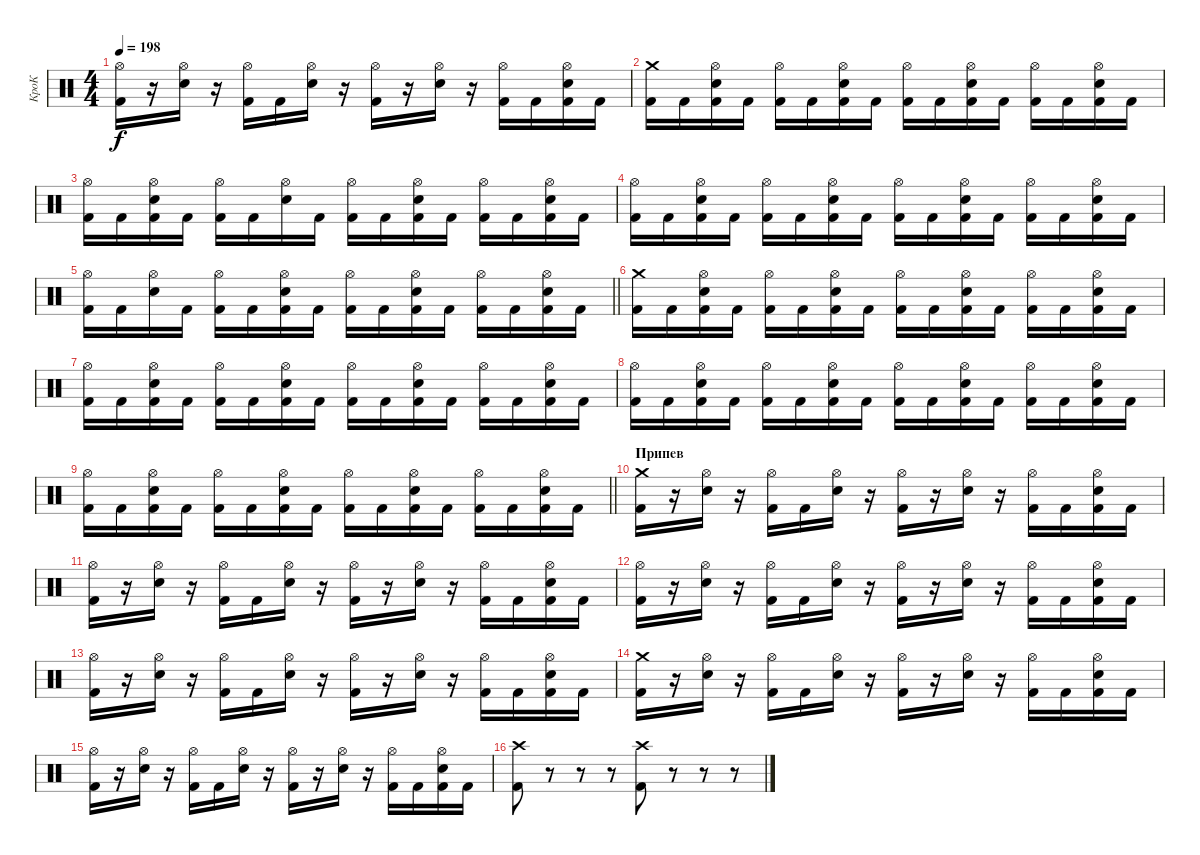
\track ("КроК" "КроК") {instrument percussion}
\staff {score}
\articulation defaults
\ts (4 4)
\tempo 198
\clef neutral
\ks c
("Hi-Hat (open)" "Kick (hit) 2").16{dy f} r.16 ("Hi-Hat (open)" "Electric Snare (hit)").16 r.16 ("Hi-Hat (open)" "Kick (hit) 2").16 "Kick (hit) 2".16 ("Hi-Hat (open)" "Electric Snare (hit)").16 r.16 ("Hi-Hat (open)" "Kick (hit) 2").16 r.16 ("Hi-Hat (open)" "Electric Snare (hit)").16 r.16 ("Hi-Hat (open)" "Kick (hit) 2").16 "Kick (hit) 2".16 ("Hi-Hat (open)" "Electric Snare (hit)" "Kick (hit) 2").16 "Kick (hit) 2".16 |
("Crash medium (hit)" "Kick (hit) 2").16 "Kick (hit) 2".16 ("Hi-Hat (open)" "Electric Snare (hit)" "Kick (hit) 2").16 "Kick (hit) 2".16 ("Hi-Hat (open)" "Kick (hit) 2").16 "Kick (hit) 2".16 ("Hi-Hat (open)" "Electric Snare (hit)" "Kick (hit) 2").16 "Kick (hit) 2".16 ("Hi-Hat (open)" "Kick (hit) 2").16 "Kick (hit) 2".16 ("Hi-Hat (open)" "Electric Snare (hit)" "Kick (hit) 2").16 "Kick (hit) 2".16 ("Hi-Hat (open)" "Kick (hit) 2").16 "Kick (hit) 2".16 ("Hi-Hat (open)" "Electric Snare (hit)" "Kick (hit) 2").16 "Kick (hit) 2".16 |
("Hi-Hat (open)" "Kick (hit) 2").16 "Kick (hit) 2".16 ("Hi-Hat (open)" "Electric Snare (hit)" "Kick (hit) 2").16 "Kick (hit) 2".16 ("Hi-Hat (open)" "Kick (hit) 2").16 "Kick (hit) 2".16 ("Hi-Hat (open)" "Electric Snare (hit)").16 "Kick (hit) 2".16 ("Hi-Hat (open)" "Kick (hit) 2").16 "Kick (hit) 2".16 ("Hi-Hat (open)" "Electric Snare (hit)" "Kick (hit) 2").16 "Kick (hit) 2".16 ("Hi-Hat (open)" "Kick (hit) 2").16 "Kick (hit) 2".16 ("Hi-Hat (open)" "Electric Snare (hit)" "Kick (hit) 2").16 "Kick (hit) 2".16 |
("Hi-Hat (open)" "Kick (hit) 2").16 "Kick (hit) 2".16 ("Hi-Hat (open)" "Electric Snare (hit)" "Kick (hit) 2").16 "Kick (hit) 2".16 ("Hi-Hat (open)" "Kick (hit) 2").16 "Kick (hit) 2".16 ("Hi-Hat (open)" "Electric Snare (hit)" "Kick (hit) 2").16 "Kick (hit) 2".16 ("Hi-Hat (open)" "Kick (hit) 2").16 "Kick (hit) 2".16 ("Hi-Hat (open)" "Electric Snare (hit)" "Kick (hit) 2").16 "Kick (hit) 2".16 ("Hi-Hat (open)" "Kick (hit) 2").16 "Kick (hit) 2".16 ("Hi-Hat (open)" "Electric Snare (hit)" "Kick (hit) 2").16 "Kick (hit) 2".16 |
\barLineRight lightlight
("Hi-Hat (open)" "Kick (hit) 2").16 "Kick (hit) 2".16 ("Hi-Hat (open)" "Electric Snare (hit)").16 "Kick (hit) 2".16 ("Hi-Hat (open)" "Kick (hit) 2").16 "Kick (hit) 2".16 ("Hi-Hat (open)" "Electric Snare (hit)" "Kick (hit) 2").16 "Kick (hit) 2".16 ("Hi-Hat (open)" "Kick (hit) 2").16 "Kick (hit) 2".16 ("Hi-Hat (open)" "Electric Snare (hit)" "Kick (hit) 2").16 "Kick (hit) 2".16 ("Hi-Hat (open)" "Kick (hit) 2").16 "Kick (hit) 2".16 ("Hi-Hat (open)" "Electric Snare (hit)" "Kick (hit) 2").16 "Kick (hit) 2".16 |
("Crash medium (hit)" "Kick (hit) 2").16 "Kick (hit) 2".16 ("Hi-Hat (open)" "Electric Snare (hit)" "Kick (hit) 2").16 "Kick (hit) 2".16 ("Hi-Hat (open)" "Kick (hit) 2").16 "Kick (hit) 2".16 ("Hi-Hat (open)" "Electric Snare (hit)" "Kick (hit) 2").16 "Kick (hit) 2".16 ("Hi-Hat (open)" "Kick (hit) 2").16 "Kick (hit) 2".16 ("Hi-Hat (open)" "Electric Snare (hit)" "Kick (hit) 2").16 "Kick (hit) 2".16 ("Hi-Hat (open)" "Kick (hit) 2").16 "Kick (hit) 2".16 ("Hi-Hat (open)" "Electric Snare (hit)" "Kick (hit) 2").16 "Kick (hit) 2".16 |
("Hi-Hat (open)" "Kick (hit) 2").16 "Kick (hit) 2".16 ("Hi-Hat (open)" "Electric Snare (hit)" "Kick (hit) 2").16 "Kick (hit) 2".16 ("Hi-Hat (open)" "Kick (hit) 2").16 "Kick (hit) 2".16 ("Hi-Hat (open)" "Electric Snare (hit)" "Kick (hit) 2").16 "Kick (hit) 2".16 ("Hi-Hat (open)" "Kick (hit) 2").16 "Kick (hit) 2".16 ("Hi-Hat (open)" "Electric Snare (hit)" "Kick (hit) 2").16 "Kick (hit) 2".16 ("Hi-Hat (open)" "Kick (hit) 2").16 "Kick (hit) 2".16 ("Hi-Hat (open)" "Electric Snare (hit)" "Kick (hit) 2").16 "Kick (hit) 2".16 |
("Hi-Hat (open)" "Kick (hit) 2").16 "Kick (hit) 2".16 ("Hi-Hat (open)" "Electric Snare (hit)" "Kick (hit) 2").16 "Kick (hit) 2".16 ("Hi-Hat (open)" "Kick (hit) 2").16 "Kick (hit) 2".16 ("Hi-Hat (open)" "Electric Snare (hit)" "Kick (hit) 2").16 "Kick (hit) 2".16 ("Hi-Hat (open)" "Kick (hit) 2").16 "Kick (hit) 2".16 ("Hi-Hat (open)" "Electric Snare (hit)" "Kick (hit) 2").16 "Kick (hit) 2".16 ("Hi-Hat (open)" "Kick (hit) 2").16 "Kick (hit) 2".16 ("Hi-Hat (open)" "Electric Snare (hit)" "Kick (hit) 2").16 "Kick (hit) 2".16 |
\barLineRight lightlight
("Hi-Hat (open)" "Kick (hit) 2").16 "Kick (hit) 2".16 ("Hi-Hat (open)" "Electric Snare (hit)" "Kick (hit) 2").16 "Kick (hit) 2".16 ("Hi-Hat (open)" "Kick (hit) 2").16 "Kick (hit) 2".16 ("Hi-Hat (open)" "Electric Snare (hit)" "Kick (hit) 2").16 "Kick (hit) 2".16 ("Hi-Hat (open)" "Kick (hit) 2").16 "Kick (hit) 2".16 ("Hi-Hat (open)" "Electric Snare (hit)" "Kick (hit) 2").16 "Kick (hit) 2".16 ("Hi-Hat (open)" "Kick (hit) 2").16 "Kick (hit) 2".16 ("Hi-Hat (open)" "Electric Snare (hit)" "Kick (hit) 2").16 "Kick (hit) 2".16 |
\section ("" "Припев")
("Crash medium (hit)" "Kick (hit) 2").16 r.16 ("Hi-Hat (open)" "Electric Snare (hit)").16 r.16 ("Hi-Hat (open)" "Kick (hit) 2").16 "Kick (hit) 2".16 ("Hi-Hat (open)" "Electric Snare (hit)").16 r.16 ("Hi-Hat (open)" "Kick (hit) 2").16 r.16 ("Hi-Hat (open)" "Electric Snare (hit)").16 r.16 ("Hi-Hat (open)" "Kick (hit) 2").16 "Kick (hit) 2".16 ("Hi-Hat (open)" "Electric Snare (hit)" "Kick (hit) 2").16 "Kick (hit) 2".16 |
("Hi-Hat (open)" "Kick (hit) 2").16 r.16 ("Hi-Hat (open)" "Electric Snare (hit)").16 r.16 ("Hi-Hat (open)" "Kick (hit) 2").16 "Kick (hit) 2".16 ("Hi-Hat (open)" "Electric Snare (hit)").16 r.16 ("Hi-Hat (open)" "Kick (hit) 2").16 r.16 ("Hi-Hat (open)" "Electric Snare (hit)").16 r.16 ("Hi-Hat (open)" "Kick (hit) 2").16 "Kick (hit) 2".16 ("Hi-Hat (open)" "Electric Snare (hit)" "Kick (hit) 2").16 "Kick (hit) 2".16 |
("Hi-Hat (open)" "Kick (hit) 2").16 r.16 ("Hi-Hat (open)" "Electric Snare (hit)").16 r.16 ("Hi-Hat (open)" "Kick (hit) 2").16 "Kick (hit) 2".16 ("Hi-Hat (open)" "Electric Snare (hit)").16 r.16 ("Hi-Hat (open)" "Kick (hit) 2").16 r.16 ("Hi-Hat (open)" "Electric Snare (hit)").16 r.16 ("Hi-Hat (open)" "Kick (hit) 2").16 "Kick (hit) 2".16 ("Hi-Hat (open)" "Electric Snare (hit)" "Kick (hit) 2").16 "Kick (hit) 2".16 |
("Hi-Hat (open)" "Kick (hit) 2").16 r.16 ("Hi-Hat (open)" "Electric Snare (hit)").16 r.16 ("Hi-Hat (open)" "Kick (hit) 2").16 "Kick (hit) 2".16 ("Hi-Hat (open)" "Electric Snare (hit)").16 r.16 ("Hi-Hat (open)" "Kick (hit) 2").16 r.16 ("Hi-Hat (open)" "Electric Snare (hit)").16 r.16 ("Hi-Hat (open)" "Kick (hit) 2").16 "Kick (hit) 2".16 ("Hi-Hat (open)" "Electric Snare (hit)" "Kick (hit) 2").16 "Kick (hit) 2".16 |
("Crash medium (hit)" "Kick (hit) 2").16 r.16 ("Hi-Hat (open)" "Electric Snare (hit)").16 r.16 ("Hi-Hat (open)" "Kick (hit) 2").16 "Kick (hit) 2".16 ("Hi-Hat (open)" "Electric Snare (hit)").16 r.16 ("Hi-Hat (open)" "Kick (hit) 2").16 r.16 ("Hi-Hat (open)" "Electric Snare (hit)").16 r.16 ("Hi-Hat (open)" "Kick (hit) 2").16 "Kick (hit) 2".16 ("Hi-Hat (open)" "Electric Snare (hit)" "Kick (hit) 2").16 "Kick (hit) 2".16 |
("Hi-Hat (open)" "Kick (hit) 2").16 r.16 ("Hi-Hat (open)" "Electric Snare (hit)").16 r.16 ("Hi-Hat (open)" "Kick (hit) 2").16 "Kick (hit) 2".16 ("Hi-Hat (open)" "Electric Snare (hit)").16 r.16 ("Hi-Hat (open)" "Kick (hit) 2").16 r.16 ("Hi-Hat (open)" "Electric Snare (hit)").16 r.16 ("Hi-Hat (open)" "Kick (hit) 2").16 "Kick (hit) 2".16 ("Hi-Hat (open)" "Electric Snare (hit)" "Kick (hit) 2").16 "Kick (hit) 2".16 |
("Crash high (hit)" "Kick (hit) 2").8 r.8 r.8 r.8 ("Crash high (hit)" "Kick (hit) 2").8 r.8 r.8 r.8
